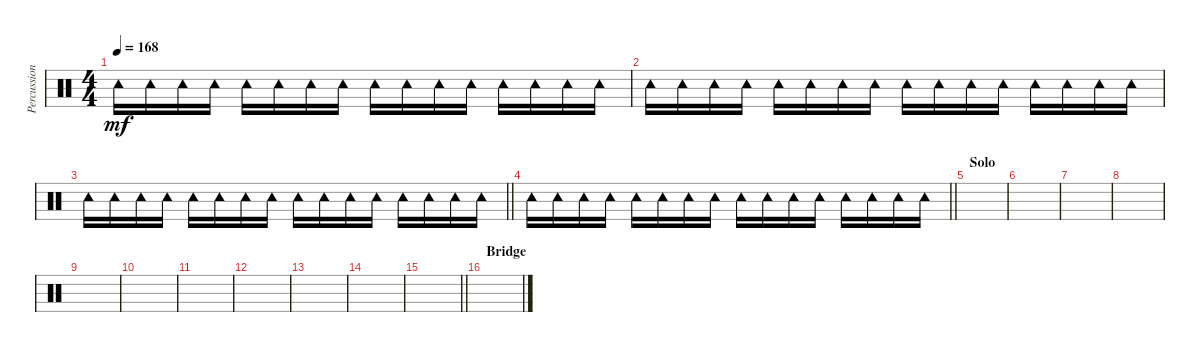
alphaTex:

\track ("Percussion" "Percussion") {instrument percussion}
\staff {score}
\articulation defaults
\ts (4 4)
\tempo 168
\clef neutral
\ks c "Tambourine (hit)".16{dy mf} "Tambourine (hit)".16 "Tambourine (hit)".16 "Tambourine (hit)".16 "Tambourine (hit)".16 "Tambourine (hit)".16 "Tambourine (hit)".16 "Tambourine (hit)".16 "Tambourine (hit)".16 "Tambourine (hit)".16 "Tambourine (hit)".16 "Tambourine (hit)".16 "Tambourine (hit)".16 "Tambourine (hit)".16 "Tambourine (hit)".16 "Tambourine (hit)".16
|
"Tambourine (hit)".16 "Tambourine (hit)".16 "Tambourine (hit)".16 "Tambourine (hit)".16 "Tambourine (hit)".16 "Tambourine (hit)".16 "Tambourine (hit)".16 "Tambourine (hit)".16 "Tambourine (hit)".16 "Tambourine (hit)".16 "Tambourine (hit)".16 "Tambourine (hit)".16 "Tambourine (hit)".16 "Tambourine (hit)".16 "Tambourine (hit)".16 "Tambourine (hit)".16 |
\barLineRight lightlight "Tambourine (hit)".16 "Tambourine (hit)".16 "Tambourine (hit)".16 "Tambourine (hit)".16 "Tambourine (hit)".16 "Tambourine (hit)".16 "Tambourine (hit)".16 "Tambourine (hit)".16 "Tambourine (hit)".16 "Tambourine (hit)".16 "Tambourine (hit)".16 "Tambourine (hit)".16 "Tambourine (hit)".16 "Tambourine (hit)".16 "Tambourine (hit)".16 "Tambourine (hit)".16
|
\barLineRight lightlight "Tambourine (hit)".16 "Tambourine (hit)".16 "Tambourine (hit)".16 "Tambourine (hit)".16 "Tambourine (hit)".16 "Tambourine (hit)".16 "Tambourine (hit)".16 "Tambourine (hit)".16 "Tambourine (hit)".16 "Tambourine (hit)".16 "Tambourine (hit)".16 "Tambourine (hit)".16 "Tambourine (hit)".16 "Tambourine (hit)".16 "Tambourine (hit)".16 "Tambourine (hit)".16
|
\section ("" "Solo")
|
|
|
|
|
|
|
|
|
|
\barLineRight lightlight
|
\section ("" "Bridge")
